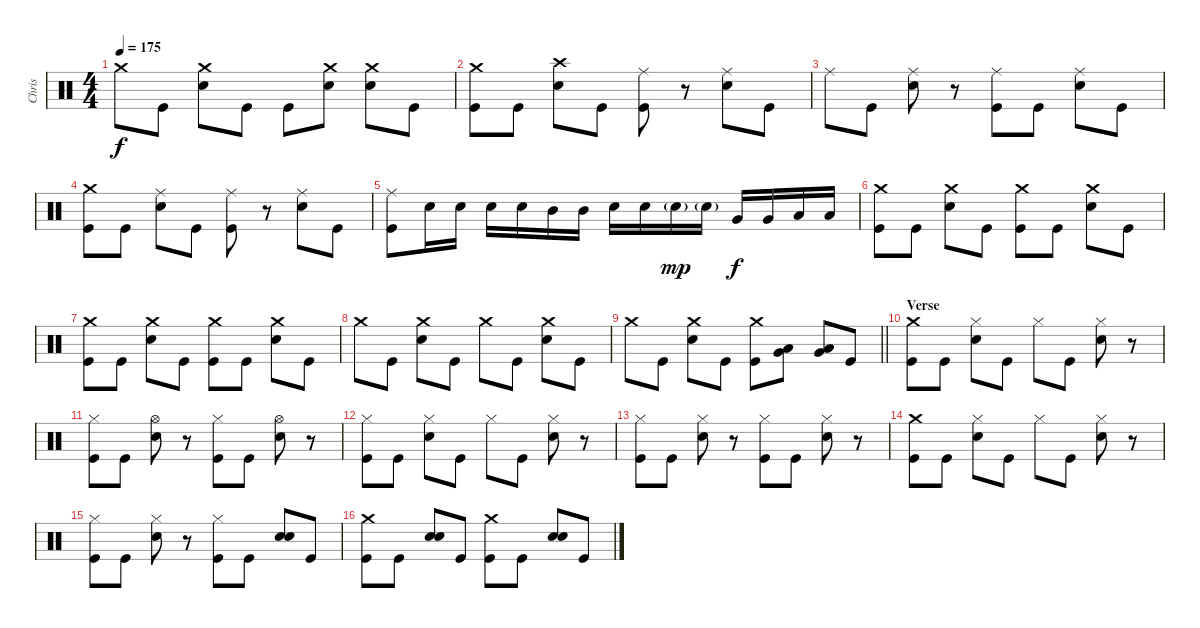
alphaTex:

\track ("Chris" "Chris") {instrument percussion}
\staff {score}
\articulation defaults
\ts (4 4)
\tempo 175
\clef neutral
\ks c "Crash medium (hit)".8{dy f} "Kick (hit)".8
("Crash medium (hit)" "Snare (hit) 2").8 "Kick (hit)".8 "Kick (hit)".8 ("Crash medium (hit)" "Snare (hit) 2").8 ("Crash medium (hit)" "Snare (hit) 2").8 "Kick (hit)".8 |
("Crash medium (hit)" "Kick (hit)").8 "Kick (hit)".8 ("Crash high (hit)" "Snare (hit) 2").8 "Kick (hit)".8 ("Ride (middle)" "Kick (hit)").8 r.8 ("Ride (middle)" "Snare (hit) 2").8 "Kick (hit)".8 |
"Ride (middle)".8 "Kick (hit)".8 ("Ride (middle)" "Snare (hit) 2").8 r.8 ("Ride (middle)" "Kick (hit)").8 "Kick (hit)".8 ("Ride (middle)" "Snare (hit) 2").8 "Kick (hit)".8 |
("Crash medium (hit)" "Kick (hit)").8 "Kick (hit)".8 ("Ride (middle)" "Snare (hit) 2").8 "Kick (hit)".8 ("Ride (middle)" "Kick (hit)").8 r.8 ("Ride (middle)" "Snare (hit) 2").8 "Kick (hit)".8 |
("Ride (middle)" "Kick (hit)").8 "Snare (hit) 2".16 "Snare (hit) 2".16 "Snare (hit) 2".16 "Snare (hit) 2".16 "Mid Tom (hit)".16 "Mid Tom (hit)".16 "Snare (hit) 2".16 "Snare (hit) 2".16 "Snare (hit) 2"{g}.16{dy mp} "Snare (hit) 2"{g}.16 "Very Low Tom (hit)".16{dy f} "Very Low Tom (hit)".16 "Low Floor Tom (hit)".16 "Low Floor Tom (hit)".16 |
("Crash medium (hit)" "Kick (hit)").8 "Kick (hit)".8 ("Crash medium (hit)" "Snare (hit) 2").8 "Kick (hit)".8 ("Crash medium (hit)" "Kick (hit)").8 "Kick (hit)".8 ("Crash medium (hit)" "Snare (hit) 2").8 "Kick (hit)".8 |
("Crash medium (hit)" "Kick (hit)").8 "Kick (hit)".8 ("Crash medium (hit)" "Snare (hit) 2").8 "Kick (hit)".8 ("Crash medium (hit)" "Kick (hit)").8 "Kick (hit)".8 ("Crash medium (hit)" "Snare (hit) 2").8 "Kick (hit)".8 |
"Crash medium (hit)".8 "Kick (hit)".8 ("Crash medium (hit)" "Snare (hit) 2").8 "Kick (hit)".8 "Crash medium (hit)".8 "Kick (hit)".8 ("Crash medium (hit)" "Snare (hit) 2").8 "Kick (hit)".8 |
\barLineRight lightlight "Crash medium (hit)".8 "Kick (hit)".8
("Crash medium (hit)" "Snare (hit) 2").8 "Kick (hit)".8 ("Crash medium (hit)" "Kick (hit)").8 ("Very Low Tom (hit)" "Low Floor Tom (hit)").8 ("Very Low Tom (hit)" "Low Floor Tom (hit)").8 "Kick (hit)".8 |
\section ("" "Verse")
("Crash medium (hit)" "Kick (hit)").8 "Kick (hit)".8 ("Hi-Hat (closed)" "Snare (hit) 2").8 "Kick (hit)".8 "Hi-Hat (closed)".8 "Kick (hit)".8 ("Hi-Hat (closed)" "Snare (hit) 2").8 r.8 |
("Hi-Hat (closed)" "Kick (hit)").8 "Kick (hit)".8 ("Hi-Hat (open)" "Snare (hit) 2").8 r.8 ("Hi-Hat (closed)" "Kick (hit)").8 "Kick (hit)".8 ("Hi-Hat (open)" "Snare (hit) 2").8 r.8 |
("Hi-Hat (closed)" "Kick (hit)").8 "Kick (hit)".8 ("Hi-Hat (closed)" "Snare (hit) 2").8 "Kick (hit)".8 "Hi-Hat (closed)".8 "Kick (hit)".8 ("Hi-Hat (closed)" "Snare (hit) 2").8 r.8 |
("Hi-Hat (closed)" "Kick (hit)").8 "Kick (hit)".8 ("Hi-Hat (closed)" "Snare (hit) 2").8 r.8 ("Hi-Hat (closed)" "Kick (hit)").8 "Kick (hit)".8 ("Hi-Hat (closed)" "Snare (hit) 2").8 r.8 |
("Crash medium (hit)" "Kick (hit)").8 "Kick (hit)".8 ("Hi-Hat (closed)" "Snare (hit) 2").8 "Kick (hit)".8 "Hi-Hat (closed)".8 "Kick (hit)".8 ("Hi-Hat (closed)" "Snare (hit) 2").8 r.8 |
("Hi-Hat (closed)" "Kick (hit)").8 "Kick (hit)".8 ("Hi-Hat (closed)" "Snare (hit) 2").8 r.8 ("Hi-Hat (closed)" "Kick (hit)").8 "Kick (hit)".8 ("Snare (hit) 2" "Snare (hit) 2").8{bd 120} "Kick (hit)".8 |
("Crash medium (hit)" "Kick (hit)").8 "Kick (hit)".8 ("Snare (hit) 2" "Snare (hit) 2").8{bd 120} "Kick (hit)".8 ("Crash medium (hit)" "Kick (hit)").8 "Kick (hit)".8 ("Snare (hit) 2" "Snare (hit) 2").8 "Kick (hit)".8
